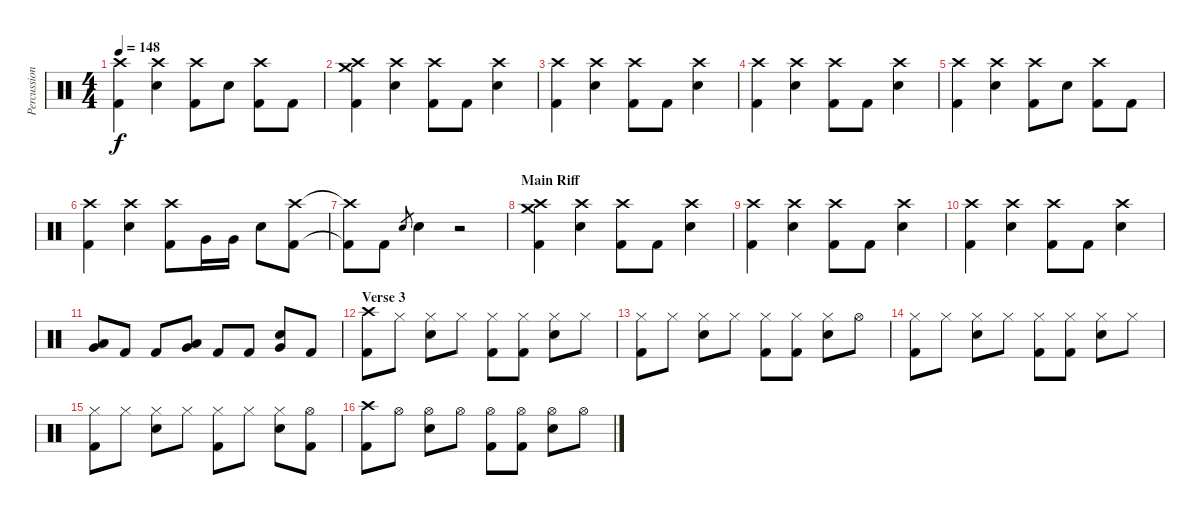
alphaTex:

\track ("Percussion" "Percussion") {instrument percussion}
\staff {score}
\articulation defaults
\ts (4 4)
\tempo 148
\clef neutral
\ks c
("Crash high (hit)" "Kick (hit) 2").4{dy f} ("Crash high (hit)" "Snare (hit) 2").4 ("Crash high (hit)" "Kick (hit) 2").8 "Snare (hit) 2".8 ("Crash high (hit)" "Kick (hit) 2").8 "Kick (hit) 2".8 |
("Crash high (hit)" "Crash medium (hit)" "Kick (hit) 2").4 ("Crash high (hit)" "Snare (hit) 2").4 ("Crash high (hit)" "Kick (hit) 2").8 "Kick (hit) 2".8 ("Crash high (hit)" "Snare (hit) 2").4 |
("Crash high (hit)" "Kick (hit) 2").4 ("Crash high (hit)" "Snare (hit) 2").4 ("Crash high (hit)" "Kick (hit) 2").8 "Kick (hit) 2".8 ("Crash high (hit)" "Snare (hit) 2").4 |
("Crash high (hit)" "Kick (hit) 2").4 ("Crash high (hit)" "Snare (hit) 2").4 ("Crash high (hit)" "Kick (hit) 2").8 "Kick (hit) 2".8 ("Crash high (hit)" "Snare (hit) 2").4 |
("Crash high (hit)" "Kick (hit) 2").4 ("Crash high (hit)" "Snare (hit) 2").4 ("Crash high (hit)" "Kick (hit) 2").8 "Snare (hit) 2".8 ("Crash high (hit)" "Kick (hit) 2").8 "Kick (hit) 2".8 |
("Crash high (hit)" "Kick (hit) 2").4 ("Crash high (hit)" "Snare (hit) 2").4 ("Crash high (hit)" "Kick (hit) 2").8 "Very Low Tom (hit)".16 "Very Low Tom (hit)".16 "Snare (hit) 2".8 ("Crash high (hit)" "Kick (hit) 2").8 |
("Crash high (hit)"{t} "Kick (hit) 2"{t}).8 "Kick (hit) 2".8 "Snare (hit) 2".8{gr} "Snare (hit) 2".4 r.2 |
\section ("" "Main Riff")
("Crash high (hit)" "Crash medium (hit)" "Kick (hit) 2").4 ("Crash high (hit)" "Snare (hit) 2").4 ("Crash high (hit)" "Kick (hit) 2").8 "Kick (hit) 2".8 ("Crash high (hit)" "Snare (hit) 2").4 |
("Crash high (hit)" "Kick (hit) 2").4 ("Crash high (hit)" "Snare (hit) 2").4 ("Crash high (hit)" "Kick (hit) 2").8 "Kick (hit) 2".8 ("Crash high (hit)" "Snare (hit) 2").4 |
("Crash high (hit)" "Kick (hit) 2").4 ("Crash high (hit)" "Snare (hit) 2").4 ("Crash high (hit)" "Kick (hit) 2").8 "Kick (hit) 2".8 ("Crash high (hit)" "Snare (hit) 2").4 |
("Low Tom (hit)" "Very Low Tom (hit)").8 "Kick (hit) 2".8 "Kick (hit) 2".8 ("Low Tom (hit)" "Very Low Tom (hit)").8 "Kick (hit) 2".8 "Kick (hit) 2".8 ("Snare (hit) 2" "Very Low Tom (hit)").8 "Kick (hit) 2".8 |
\section ("" "Verse 3")
("Crash high (hit)" "Kick (hit) 2").8 "Hi-Hat (closed)".8 ("Hi-Hat (closed)" "Snare (hit) 2").8 "Hi-Hat (closed)".8 ("Hi-Hat (closed)" "Kick (hit) 2").8 ("Hi-Hat (closed)" "Kick (hit) 2").8 ("Hi-Hat (closed)" "Snare (hit) 2").8 "Hi-Hat (closed)".8 |
("Hi-Hat (closed)" "Kick (hit) 2").8 "Hi-Hat (closed)".8 ("Hi-Hat (closed)" "Snare (hit) 2").8 "Hi-Hat (closed)".8 ("Hi-Hat (closed)" "Kick (hit) 2").8 ("Hi-Hat (closed)" "Kick (hit) 2").8 ("Hi-Hat (closed)" "Snare (hit) 2").8 "Hi-Hat (open)".8 |
("Hi-Hat (closed)" "Kick (hit) 2").8 "Hi-Hat (closed)".8 ("Hi-Hat (closed)" "Snare (hit) 2").8 "Hi-Hat (closed)".8 ("Hi-Hat (closed)" "Kick (hit) 2").8 ("Hi-Hat (closed)" "Kick (hit) 2").8 ("Hi-Hat (closed)" "Snare (hit) 2").8 "Hi-Hat (closed)".8 |
("Hi-Hat (closed)" "Kick (hit) 2").8 "Hi-Hat (closed)".8 ("Hi-Hat (closed)" "Snare (hit) 2").8 "Hi-Hat (closed)".8 ("Hi-Hat (closed)" "Kick (hit) 2").8 "Hi-Hat (closed)".8 ("Hi-Hat (closed)" "Snare (hit) 2").8 ("Hi-Hat (open)" "Kick (hit) 2").8 |
("Crash high (hit)" "Kick (hit) 2").8 "Hi-Hat (open)".8 ("Hi-Hat (open)" "Snare (hit) 2").8 "Hi-Hat (open)".8 ("Hi-Hat (open)" "Kick (hit) 2").8 ("Hi-Hat (open)" "Kick (hit) 2").8 ("Hi-Hat (open)" "Snare (hit) 2").8 "Hi-Hat (open)".8
